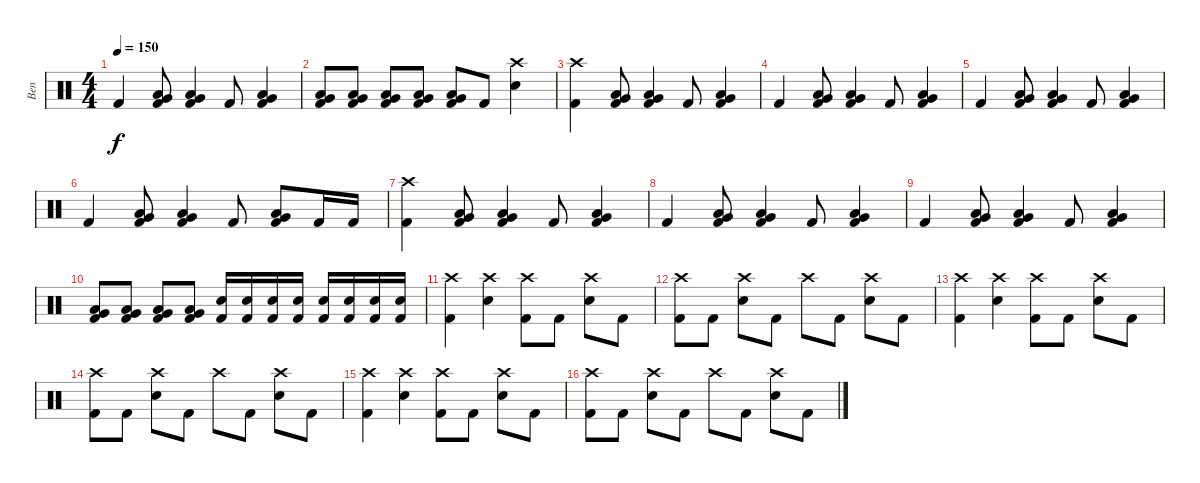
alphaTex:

\track ("Ben" "Ben") {instrument percussion}
\staff {score}
\articulation defaults
\ts (4 4)
\tempo 150
\clef neutral
\ks c "Kick (hit) 2".4{dy f}
("Kick (hit) 2" "Very Low Tom (hit)" "Low Floor Tom (hit)").8 ("Kick (hit) 2" "Very Low Tom (hit)" "Low Floor Tom (hit)").4 "Kick (hit) 2".8 ("Kick (hit) 2" "Very Low Tom (hit)" "Low Floor Tom (hit)").4 |
("Kick (hit) 2" "Very Low Tom (hit)" "Low Floor Tom (hit)").8 ("Kick (hit) 2" "Very Low Tom (hit)" "Low Floor Tom (hit)").8 ("Kick (hit) 2" "Very Low Tom (hit)" "Low Floor Tom (hit)").8 ("Kick (hit) 2" "Very Low Tom (hit)" "Low Floor Tom (hit)").8 ("Kick (hit) 2" "Very Low Tom (hit)" "Low Floor Tom (hit)").8 "Kick (hit) 2".8 ("Crash high (hit)" "Snare (hit) 2").4 |
("Crash high (hit)" "Kick (hit) 2").4 ("Kick (hit) 2" "Very Low Tom (hit)" "Low Floor Tom (hit)").8 ("Kick (hit) 2" "Very Low Tom (hit)" "Low Floor Tom (hit)").4 "Kick (hit) 2".8 ("Kick (hit) 2" "Very Low Tom (hit)" "Low Floor Tom (hit)").4 |
"Kick (hit) 2".4 ("Kick (hit) 2" "Very Low Tom (hit)" "Low Floor Tom (hit)").8 ("Kick (hit) 2" "Very Low Tom (hit)" "Low Floor Tom (hit)").4 "Kick (hit) 2".8 ("Kick (hit) 2" "Very Low Tom (hit)" "Low Floor Tom (hit)").4 |
"Kick (hit) 2".4 ("Kick (hit) 2" "Very Low Tom (hit)" "Low Floor Tom (hit)").8 ("Kick (hit) 2" "Very Low Tom (hit)" "Low Floor Tom (hit)").4 "Kick (hit) 2".8 ("Kick (hit) 2" "Very Low Tom (hit)" "Low Floor Tom (hit)").4 |
"Kick (hit) 2".4 ("Kick (hit) 2" "Very Low Tom (hit)" "Low Floor Tom (hit)").8 ("Kick (hit) 2" "Very Low Tom (hit)" "Low Floor Tom (hit)").4 "Kick (hit) 2".8 ("Kick (hit) 2" "Very Low Tom (hit)" "Low Floor Tom (hit)").8 "Kick (hit) 2".16 "Kick (hit) 2".16 |
("Crash high (hit)" "Kick (hit) 2").4 ("Kick (hit) 2" "Very Low Tom (hit)" "Low Floor Tom (hit)").8 ("Kick (hit) 2" "Very Low Tom (hit)" "Low Floor Tom (hit)").4 "Kick (hit) 2".8 ("Kick (hit) 2" "Very Low Tom (hit)" "Low Floor Tom (hit)").4 |
"Kick (hit) 2".4 ("Kick (hit) 2" "Very Low Tom (hit)" "Low Floor Tom (hit)").8 ("Kick (hit) 2" "Very Low Tom (hit)" "Low Floor Tom (hit)").4 "Kick (hit) 2".8 ("Kick (hit) 2" "Very Low Tom (hit)" "Low Floor Tom (hit)").4 |
"Kick (hit) 2".4 ("Kick (hit) 2" "Very Low Tom (hit)" "Low Floor Tom (hit)").8 ("Kick (hit) 2" "Very Low Tom (hit)" "Low Floor Tom (hit)").4 "Kick (hit) 2".8 ("Kick (hit) 2" "Very Low Tom (hit)" "Low Floor Tom (hit)").4 |
("Kick (hit) 2" "Very Low Tom (hit)" "Low Floor Tom (hit)").8 ("Kick (hit) 2" "Very Low Tom (hit)" "Low Floor Tom (hit)").8 ("Kick (hit) 2" "Very Low Tom (hit)" "Low Floor Tom (hit)").8 ("Kick (hit) 2" "Very Low Tom (hit)" "Low Floor Tom (hit)").8 ("Kick (hit) 2" "Snare (hit) 2").16 ("Kick (hit) 2" "Snare (hit) 2").16 ("Kick (hit) 2" "Snare (hit) 2").16 ("Kick (hit) 2" "Snare (hit) 2").16 ("Kick (hit) 2" "Snare (hit) 2").16 ("Kick (hit) 2" "Snare (hit) 2").16 ("Kick (hit) 2" "Snare (hit) 2").16 ("Kick (hit) 2" "Snare (hit) 2").16 |
("Crash high (hit)" "Kick (hit) 2").4 ("Crash high (hit)" "Snare (hit) 2").4 ("Crash high (hit)" "Kick (hit) 2").8 "Kick (hit) 2".8 ("Crash high (hit)" "Snare (hit) 2").8 "Kick (hit) 2".8 |
("Crash high (hit)" "Kick (hit) 2").8 "Kick (hit) 2".8 ("Crash high (hit)" "Snare (hit) 2").8 "Kick (hit) 2".8 "Crash high (hit)".8 "Kick (hit) 2".8 ("Crash high (hit)" "Snare (hit) 2").8 "Kick (hit) 2".8 |
("Crash high (hit)" "Kick (hit) 2").4 ("Crash high (hit)" "Snare (hit) 2").4 ("Crash high (hit)" "Kick (hit) 2").8 "Kick (hit) 2".8 ("Crash high (hit)" "Snare (hit) 2").8 "Kick (hit) 2".8 |
("Crash high (hit)" "Kick (hit) 2").8 "Kick (hit) 2".8 ("Crash high (hit)" "Snare (hit) 2").8 "Kick (hit) 2".8 "Crash high (hit)".8 "Kick (hit) 2".8 ("Crash high (hit)" "Snare (hit) 2").8 "Kick (hit) 2".8 |
("Crash high (hit)" "Kick (hit) 2").4 ("Crash high (hit)" "Snare (hit) 2").4 ("Crash high (hit)" "Kick (hit) 2").8 "Kick (hit) 2".8 ("Crash high (hit)" "Snare (hit) 2").8 "Kick (hit) 2".8 |
("Crash high (hit)" "Kick (hit) 2").8 "Kick (hit) 2".8 ("Crash high (hit)" "Snare (hit) 2").8 "Kick (hit) 2".8 "Crash high (hit)".8 "Kick (hit) 2".8 ("Crash high (hit)" "Snare (hit) 2").8 "Kick (hit) 2".8
